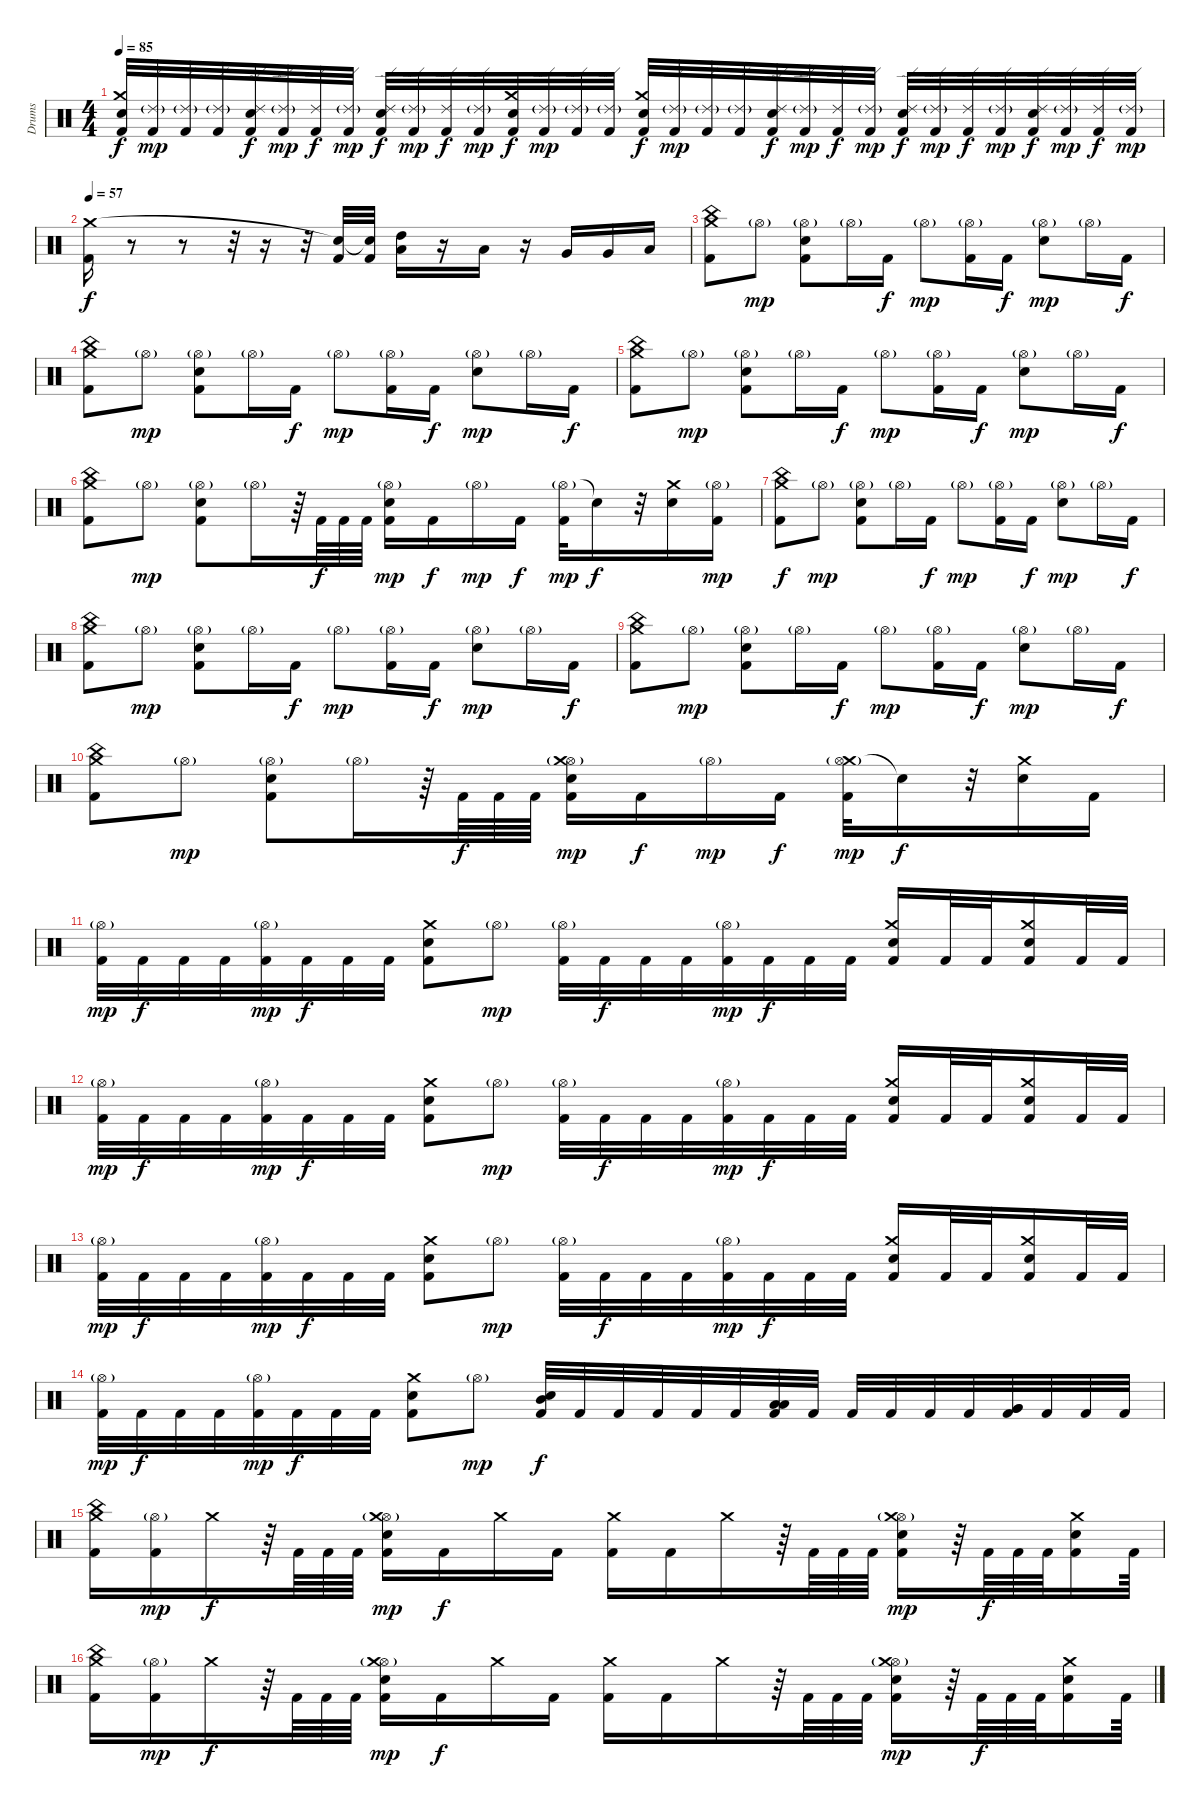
\track ("Drums" "Drums") {instrument percussion}
\staff {score}
\articulation defaults
\ts (4 4)
\tempo 85
\clef neutral
\ks c
("Snare (hit) 2" "Crash medium (hit)" "Kick (hit) 2").32{dy f} ("Ride (edge) 2"{g} "Kick (hit) 2").32{dy mp} ("Ride (edge) 2"{g} "Kick (hit) 2").32 ("Ride (edge) 2"{g} "Kick (hit) 2").32 ("Snare (hit) 2" "Ride (edge) 2" "Kick (hit) 2").32{dy f} ("Ride (edge) 2"{g} "Kick (hit) 2").32{dy mp} ("Ride (edge) 2" "Kick (hit) 2").32{dy f} ("Ride (edge) 2"{g} "Kick (hit) 2").32{dy mp} ("Snare (hit) 2" "Ride (edge) 2" "Kick (hit) 2").32{dy f} ("Ride (edge) 2"{g} "Kick (hit) 2").32{dy mp} ("Ride (edge) 2" "Kick (hit) 2").32{dy f} ("Ride (edge) 2"{g} "Kick (hit) 2").32{dy mp} ("Snare (hit) 2" "Crash medium (hit)" "Kick (hit) 2").32{dy f} ("Ride (edge) 2"{g} "Kick (hit) 2").32{dy mp} ("Ride (edge) 2"{g} "Kick (hit) 2").32 ("Ride (edge) 2"{g} "Kick (hit) 2").32 ("Snare (hit) 2" "Crash medium (hit)" "Kick (hit) 2").32{dy f} ("Ride (edge) 2"{g} "Kick (hit) 2").32{dy mp} ("Ride (edge) 2"{g} "Kick (hit) 2").32 ("Ride (edge) 2"{g} "Kick (hit) 2").32 ("Snare (hit) 2" "Ride (edge) 2" "Kick (hit) 2").32{dy f} ("Ride (edge) 2"{g} "Kick (hit) 2").32{dy mp} ("Ride (edge) 2" "Kick (hit) 2").32{dy f} ("Ride (edge) 2"{g} "Kick (hit) 2").32{dy mp} ("Snare (hit) 2" "Ride (edge) 2" "Kick (hit) 2").32{dy f} ("Ride (edge) 2"{g} "Kick (hit) 2").32{dy mp} ("Ride (edge) 2" "Kick (hit) 2").32{dy f} ("Ride (edge) 2"{g} "Kick (hit) 2").32{dy mp} ("Snare (hit) 2" "Ride (edge) 2" "Kick (hit) 2").32{dy f} ("Ride (edge) 2"{g} "Kick (hit) 2").32{dy mp} ("Ride (edge) 2" "Kick (hit) 2").32{dy f} ("Ride (edge) 2"{g} "Kick (hit) 2").32{dy mp} |
\tempo 57
("Crash medium (hit)" "Kick (hit) 2").16{dy f} r.8 r.8 r.32 r.16 r.32 ("Snare (hit)"{t} "Kick (hit) 2").32 ("Snare (hit)"{t} "Kick (hit) 2").32 ("High Tom (hit)" "Low Floor Tom (hit)").16 r.16 "Low Tom (hit)".16 r.16 "Very Low Tom (hit)".16 "Very Low Tom (hit)".16 "Low Floor Tom (hit)".16 |
("Crash medium (hit)" "China (hit)" "Kick (hit) 2").8 "Hi-Hat (open)"{g}.8{dy mp} ("Snare (hit) 2" "Hi-Hat (open)"{g} "Kick (hit) 2").8 "Hi-Hat (open)"{g}.16 "Kick (hit) 2".16{dy f} "Hi-Hat (open)"{g}.8{dy mp} ("Hi-Hat (open)"{g} "Kick (hit) 2").16 "Kick (hit) 2".16{dy f} ("Snare (hit) 2" "Hi-Hat (open)"{g}).8{dy mp} "Hi-Hat (open)"{g}.16 "Kick (hit) 2".16{dy f} |
("Crash medium (hit)" "China (hit)" "Kick (hit) 2").8 "Hi-Hat (open)"{g}.8{dy mp} ("Snare (hit) 2" "Hi-Hat (open)"{g} "Kick (hit) 2").8 "Hi-Hat (open)"{g}.16 "Kick (hit) 2".16{dy f} "Hi-Hat (open)"{g}.8{dy mp} ("Hi-Hat (open)"{g} "Kick (hit) 2").16 "Kick (hit) 2".16{dy f} ("Snare (hit) 2" "Hi-Hat (open)"{g}).8{dy mp} "Hi-Hat (open)"{g}.16 "Kick (hit) 2".16{dy f} |
("Crash medium (hit)" "China (hit)" "Kick (hit) 2").8 "Hi-Hat (open)"{g}.8{dy mp} ("Snare (hit) 2" "Hi-Hat (open)"{g} "Kick (hit) 2").8 "Hi-Hat (open)"{g}.16 "Kick (hit) 2".16{dy f} "Hi-Hat (open)"{g}.8{dy mp} ("Hi-Hat (open)"{g} "Kick (hit) 2").16 "Kick (hit) 2".16{dy f} ("Snare (hit) 2" "Hi-Hat (open)"{g}).8{dy mp} "Hi-Hat (open)"{g}.16 "Kick (hit) 2".16{dy f} |
("Crash medium (hit)" "China (hit)" "Kick (hit) 2").8 "Hi-Hat (open)"{g}.8{dy mp} ("Snare (hit) 2" "Hi-Hat (open)"{g} "Kick (hit) 2").8 "Hi-Hat (open)"{g}.16 r.64 "Kick (hit) 2".64{dy f} "Kick (hit) 2".64 "Kick (hit) 2".64 ("Snare (hit) 2" "Hi-Hat (open)"{g} "Kick (hit) 2").16{dy mp} "Kick (hit) 2".16{dy f} "Hi-Hat (open)"{g}.16{dy mp} "Kick (hit) 2".16{dy f} ("Hi-Hat (open)"{g} "Kick (hit) 2").32{dy mp} "Snare (hit)"{t}.16{dy f} r.32 ("Snare (hit) 2" "Crash medium (hit)").16 ("Hi-Hat (open)"{g} "Kick (hit) 2").16{dy mp} |
("Crash medium (hit)" "China (hit)" "Kick (hit) 2").8{dy f} "Hi-Hat (open)"{g}.8{dy mp} ("Snare (hit) 2" "Hi-Hat (open)"{g} "Kick (hit) 2").8 "Hi-Hat (open)"{g}.16 "Kick (hit) 2".16{dy f} "Hi-Hat (open)"{g}.8{dy mp} ("Hi-Hat (open)"{g} "Kick (hit) 2").16 "Kick (hit) 2".16{dy f} ("Snare (hit) 2" "Hi-Hat (open)"{g}).8{dy mp} "Hi-Hat (open)"{g}.16 "Kick (hit) 2".16{dy f} |
("Crash medium (hit)" "China (hit)" "Kick (hit) 2").8 "Hi-Hat (open)"{g}.8{dy mp} ("Snare (hit) 2" "Hi-Hat (open)"{g} "Kick (hit) 2").8 "Hi-Hat (open)"{g}.16 "Kick (hit) 2".16{dy f} "Hi-Hat (open)"{g}.8{dy mp} ("Hi-Hat (open)"{g} "Kick (hit) 2").16 "Kick (hit) 2".16{dy f} ("Snare (hit) 2" "Hi-Hat (open)"{g}).8{dy mp} "Hi-Hat (open)"{g}.16 "Kick (hit) 2".16{dy f} |
("Crash medium (hit)" "China (hit)" "Kick (hit) 2").8 "Hi-Hat (open)"{g}.8{dy mp} ("Snare (hit) 2" "Hi-Hat (open)"{g} "Kick (hit) 2").8 "Hi-Hat (open)"{g}.16 "Kick (hit) 2".16{dy f} "Hi-Hat (open)"{g}.8{dy mp} ("Hi-Hat (open)"{g} "Kick (hit) 2").16 "Kick (hit) 2".16{dy f} ("Snare (hit) 2" "Hi-Hat (open)"{g}).8{dy mp} "Hi-Hat (open)"{g}.16 "Kick (hit) 2".16{dy f} |
("Crash medium (hit)" "China (hit)" "Kick (hit) 2").8 "Hi-Hat (open)"{g}.8{dy mp} ("Snare (hit) 2" "Hi-Hat (open)"{g} "Kick (hit) 2").8 "Hi-Hat (open)"{g}.16 r.64 "Kick (hit) 2".64{dy f} "Kick (hit) 2".64 "Kick (hit) 2".64 ("Snare (hit) 2" "Hi-Hat (open)"{g} "Crash medium (hit)" "Kick (hit) 2").16{dy mp} "Kick (hit) 2".16{dy f} "Hi-Hat (open)"{g}.16{dy mp} "Kick (hit) 2".16{dy f} ("Crash medium (hit)" "Hi-Hat (open)"{g} "Kick (hit) 2").32{dy mp} "Snare (hit)"{t}.16{dy f} r.32 ("Snare (hit) 2" "Crash medium (hit)").16 "Kick (hit) 2".16 |
("Hi-Hat (open)"{g} "Kick (hit) 2").32{dy mp} "Kick (hit) 2".32{dy f} "Kick (hit) 2".32 "Kick (hit) 2".32 ("Hi-Hat (open)"{g} "Kick (hit) 2").32{dy mp} "Kick (hit) 2".32{dy f} "Kick (hit) 2".32 "Kick (hit) 2".32 ("Snare (hit) 2" "Crash medium (hit)" "Kick (hit) 2").8 "Hi-Hat (open)"{g}.8{dy mp} ("Hi-Hat (open)"{g} "Kick (hit) 2").32 "Kick (hit) 2".32{dy f} "Kick (hit) 2".32 "Kick (hit) 2".32 ("Hi-Hat (open)"{g} "Kick (hit) 2").32{dy mp} "Kick (hit) 2".32{dy f} "Kick (hit) 2".32 "Kick (hit) 2".32 ("Snare (hit) 2" "Crash medium (hit)" "Kick (hit) 2").16 "Kick (hit) 2".32 "Kick (hit) 2".32 ("Snare (hit) 2" "Crash medium (hit)" "Kick (hit) 2").16 "Kick (hit) 2".32 "Kick (hit) 2".32 |
("Hi-Hat (open)"{g} "Kick (hit) 2").32{dy mp} "Kick (hit) 2".32{dy f} "Kick (hit) 2".32 "Kick (hit) 2".32 ("Hi-Hat (open)"{g} "Kick (hit) 2").32{dy mp} "Kick (hit) 2".32{dy f} "Kick (hit) 2".32 "Kick (hit) 2".32 ("Snare (hit) 2" "Crash medium (hit)" "Kick (hit) 2").8 "Hi-Hat (open)"{g}.8{dy mp} ("Hi-Hat (open)"{g} "Kick (hit) 2").32 "Kick (hit) 2".32{dy f} "Kick (hit) 2".32 "Kick (hit) 2".32 ("Hi-Hat (open)"{g} "Kick (hit) 2").32{dy mp} "Kick (hit) 2".32{dy f} "Kick (hit) 2".32 "Kick (hit) 2".32 ("Snare (hit) 2" "Crash medium (hit)" "Kick (hit) 2").16 "Kick (hit) 2".32 "Kick (hit) 2".32 ("Snare (hit) 2" "Crash medium (hit)" "Kick (hit) 2").16 "Kick (hit) 2".32 "Kick (hit) 2".32 |
("Hi-Hat (open)"{g} "Kick (hit) 2").32{dy mp} "Kick (hit) 2".32{dy f} "Kick (hit) 2".32 "Kick (hit) 2".32 ("Hi-Hat (open)"{g} "Kick (hit) 2").32{dy mp} "Kick (hit) 2".32{dy f} "Kick (hit) 2".32 "Kick (hit) 2".32 ("Snare (hit) 2" "Crash medium (hit)" "Kick (hit) 2").8 "Hi-Hat (open)"{g}.8{dy mp} ("Hi-Hat (open)"{g} "Kick (hit) 2").32 "Kick (hit) 2".32{dy f} "Kick (hit) 2".32 "Kick (hit) 2".32 ("Hi-Hat (open)"{g} "Kick (hit) 2").32{dy mp} "Kick (hit) 2".32{dy f} "Kick (hit) 2".32 "Kick (hit) 2".32 ("Snare (hit) 2" "Crash medium (hit)" "Kick (hit) 2").16 "Kick (hit) 2".32 "Kick (hit) 2".32 ("Snare (hit) 2" "Crash medium (hit)" "Kick (hit) 2").16 "Kick (hit) 2".32 "Kick (hit) 2".32 |
("Hi-Hat (open)"{g} "Kick (hit) 2").32{dy mp} "Kick (hit) 2".32{dy f} "Kick (hit) 2".32 "Kick (hit) 2".32 ("Hi-Hat (open)"{g} "Kick (hit) 2").32{dy mp} "Kick (hit) 2".32{dy f} "Kick (hit) 2".32 "Kick (hit) 2".32 ("Snare (hit) 2" "Crash medium (hit)" "Kick (hit) 2").8 "Hi-Hat (open)"{g}.8{dy mp} ("Snare (hit) 2" "Mid Tom (hit)" "Kick (hit) 2").32{dy f} "Kick (hit) 2".32 "Kick (hit) 2".32 "Kick (hit) 2".32 "Kick (hit) 2".32 "Kick (hit) 2".32 ("Low Tom (hit)" "Low Tom (hit)" "Kick (hit) 2").32 "Kick (hit) 2".32 "Kick (hit) 2".32 "Kick (hit) 2".32 "Kick (hit) 2".32 "Kick (hit) 2".32 ("Very Low Tom (hit)" "Very Low Tom (hit)" "Kick (hit) 2").32 "Kick (hit) 2".32 "Kick (hit) 2".32 "Kick (hit) 2".32 |
("Crash medium (hit)" "China (hit)" "Kick (hit) 2").16 ("Hi-Hat (open)"{g} "Kick (hit) 2").16{dy mp} "Crash medium (hit)".16{dy f} r.64 "Kick (hit) 2".64 "Kick (hit) 2".64 "Kick (hit) 2".64 ("Snare (hit) 2" "Hi-Hat (open)"{g} "Crash medium (hit)" "Kick (hit) 2").16{dy mp} "Kick (hit) 2".16{dy f} "Crash medium (hit)".16 "Kick (hit) 2".16 ("Crash medium (hit)" "Kick (hit) 2").16 "Kick (hit) 2".16 "Crash medium (hit)".16 r.64 "Kick (hit) 2".64 "Kick (hit) 2".64 "Kick (hit) 2".64 ("Snare (hit) 2" "Hi-Hat (open)"{g} "Crash medium (hit)" "Kick (hit) 2").16{dy mp} r.64 "Kick (hit) 2".64{dy f} "Kick (hit) 2".64 "Kick (hit) 2".64 ("Snare (hit) 2" "Crash medium (hit)" "Kick (hit) 2").16 "Kick (hit) 2".64 |
("Crash medium (hit)" "China (hit)" "Kick (hit) 2").16 ("Hi-Hat (open)"{g} "Kick (hit) 2").16{dy mp} "Crash medium (hit)".16{dy f} r.64 "Kick (hit) 2".64 "Kick (hit) 2".64 "Kick (hit) 2".64 ("Snare (hit) 2" "Hi-Hat (open)"{g} "Crash medium (hit)" "Kick (hit) 2").16{dy mp} "Kick (hit) 2".16{dy f} "Crash medium (hit)".16 "Kick (hit) 2".16 ("Crash medium (hit)" "Kick (hit) 2").16 "Kick (hit) 2".16 "Crash medium (hit)".16 r.64 "Kick (hit) 2".64 "Kick (hit) 2".64 "Kick (hit) 2".64 ("Snare (hit) 2" "Hi-Hat (open)"{g} "Crash medium (hit)" "Kick (hit) 2").16{dy mp} r.64 "Kick (hit) 2".64{dy f} "Kick (hit) 2".64 "Kick (hit) 2".64 ("Snare (hit) 2" "Crash medium (hit)" "Kick (hit) 2").16 "Kick (hit) 2".64
